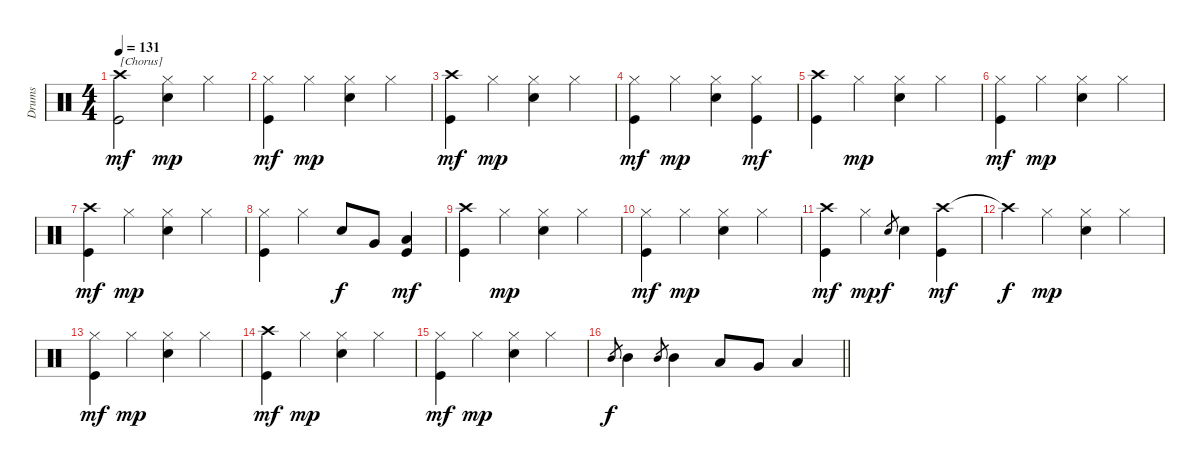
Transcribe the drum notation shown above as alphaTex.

\track ("Drums" "Drums") {instrument percussion}
\staff {score}
\articulation defaults
\ts (4 4)
\tempo 131
\clef neutral
\ks c
("Crash high (hit)" "Kick (hit)").2{txt "[Chorus]" dy mf} ("Hi-Hat (closed)" "Snare (hit) 2").4{dy mp} "Hi-Hat (closed)".4 |
("Hi-Hat (closed)" "Kick (hit)").4{dy mf} "Hi-Hat (closed)".4{dy mp} ("Hi-Hat (closed)" "Snare (hit) 2").4 "Hi-Hat (closed)".4 |
("Crash high (hit)" "Kick (hit)").4{dy mf} "Hi-Hat (closed)".4{dy mp} ("Hi-Hat (closed)" "Snare (hit) 2").4 "Hi-Hat (closed)".4 |
("Hi-Hat (closed)" "Kick (hit)").4{dy mf} "Hi-Hat (closed)".4{dy mp} ("Hi-Hat (closed)" "Snare (hit) 2").4 ("Hi-Hat (closed)" "Kick (hit)").4{dy mf} |
("Crash high (hit)" "Kick (hit)").4 "Hi-Hat (closed)".4{dy mp} ("Hi-Hat (closed)" "Snare (hit) 2").4 "Hi-Hat (closed)".4 |
("Hi-Hat (closed)" "Kick (hit)").4{dy mf} "Hi-Hat (closed)".4{dy mp} ("Hi-Hat (closed)" "Snare (hit) 2").4 "Hi-Hat (closed)".4 |
("Crash high (hit)" "Kick (hit)").4{dy mf} "Hi-Hat (closed)".4{dy mp} ("Hi-Hat (closed)" "Snare (hit) 2").4 "Hi-Hat (closed)".4 |
("Hi-Hat (closed)" "Kick (hit)").4 "Hi-Hat (closed)".4 "Snare (hit) 2".8{dy f} "Very Low Tom (hit)".8 ("Low Floor Tom (hit)" "Kick (hit)").4{dy mf} |
("Crash high (hit)" "Kick (hit)").4 "Hi-Hat (closed)".4{dy mp} ("Hi-Hat (closed)" "Snare (hit) 2").4 "Hi-Hat (closed)".4 |
("Hi-Hat (closed)" "Kick (hit)").4{dy mf} "Hi-Hat (closed)".4{dy mp} ("Hi-Hat (closed)" "Snare (hit) 2").4 "Hi-Hat (closed)".4 |
("Crash high (hit)" "Kick (hit)").4{dy mf} "Hi-Hat (closed)".4{dy mp} "Snare (hit) 2".8{gr dy f} "Snare (hit) 2".4 ("Crash high (hit)" "Kick (hit)").4{dy mf} |
"Crash high (hit)"{t}.4{dy f} "Hi-Hat (closed)".4{dy mp} ("Hi-Hat (closed)" "Snare (hit) 2").4 "Hi-Hat (closed)".4 |
("Hi-Hat (closed)" "Kick (hit)").4{dy mf} "Hi-Hat (closed)".4{dy mp} ("Hi-Hat (closed)" "Snare (hit) 2").4 "Hi-Hat (closed)".4 |
("Crash high (hit)" "Kick (hit)").4{dy mf} "Hi-Hat (closed)".4{dy mp} ("Hi-Hat (closed)" "Snare (hit) 2").4 "Hi-Hat (closed)".4 |
("Hi-Hat (closed)" "Kick (hit)").4{dy mf} "Hi-Hat (closed)".4{dy mp} ("Hi-Hat (closed)" "Snare (hit) 2").4 "Hi-Hat (closed)".4 |
\barLineRight lightlight "Mid Tom (hit)".8{gr dy f} "Mid Tom (hit)".4 "Mid Tom (hit)".8{gr} "Mid Tom (hit)".4 "Low Tom (hit)".8 "Very Low Tom (hit)".8 "Low Tom (hit)".4
